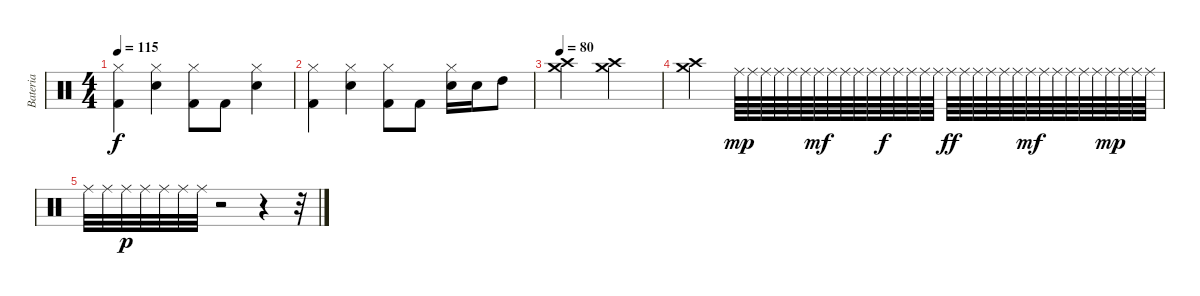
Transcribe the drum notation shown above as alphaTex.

\track ("Bateria" "Bateria") {instrument percussion}
\staff {score}
\articulation defaults
\ts (4 4)
\tempo 115
\clef neutral
\ks c
("Hi-Hat (closed)" "Kick (hit) 2").4{dy f} ("Hi-Hat (closed)" "Electric Snare (hit)").4 ("Hi-Hat (closed)" "Kick (hit) 2").8 "Kick (hit) 2".8 ("Hi-Hat (closed)" "Electric Snare (hit)").4 |
("Hi-Hat (closed)" "Kick (hit) 2").4 ("Hi-Hat (closed)" "Electric Snare (hit)").4 ("Hi-Hat (closed)" "Kick (hit) 2").8 "Kick (hit) 2".8 ("Hi-Hat (closed)" "Electric Snare (hit)").16 "Electric Snare (hit)".16 "High Tom (hit)".8 |
\tempo 80
("Crash medium (hit)" "Crash high (hit)").2 ("Crash high (hit)" "Crash medium (hit)").2 |
("Crash medium (hit)" "Crash high (hit)").2 "Ride (middle)".64{dy mp} "Ride (middle)".64 "Ride (middle)".64 "Ride (middle)".64 "Ride (middle)".64 "Ride (middle)".64 "Ride (middle)".64{dy mf} "Ride (middle)".64 "Ride (middle)".64 "Ride (middle)".64 "Ride (middle)".64 "Ride (middle)".64{dy f} "Ride (middle)".64 "Ride (middle)".64 "Ride (middle)".64 "Ride (middle)".64 "Ride (middle)".64{dy ff} "Ride (middle)".64 "Ride (middle)".64 "Ride (middle)".64 "Ride (middle)".64 "Ride (middle)".64 "Ride (middle)".64{dy mf} "Ride (middle)".64 "Ride (middle)".64 "Ride (middle)".64 "Ride (middle)".64 "Ride (middle)".64 "Ride (middle)".64{dy mp} "Ride (middle)".64 "Ride (middle)".64 "Ride (middle)".64 |
"Ride (middle)".32 "Ride (middle)".32 "Ride (middle)".32{dy p} "Ride (middle)".32 "Ride (middle)".32 "Ride (middle)".32 "Ride (middle)".32 r.2 r.4 r.32
